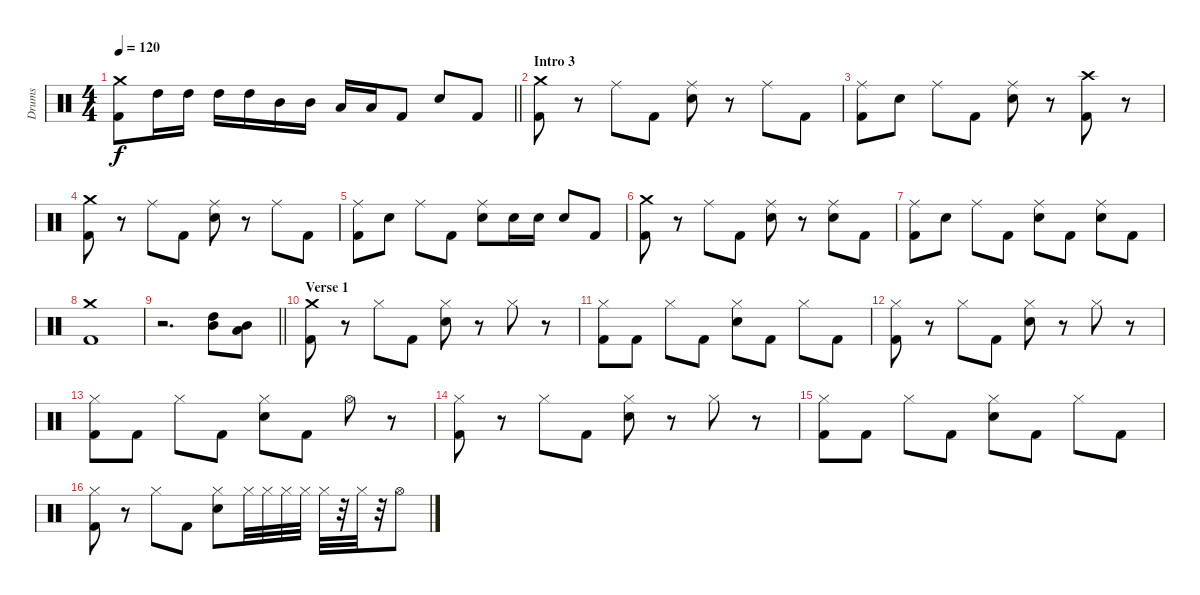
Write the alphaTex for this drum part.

\track ("Drums" "Drums") {instrument percussion}
\staff {score}
\articulation defaults
\ts (4 4)
\tempo 120
\clef neutral
\barLineRight lightlight
\ks c
("Crash medium (hit)" "Kick (hit) 2").8{dy f} "High Tom (hit)".16 "High Tom (hit)".16 "High Tom (hit)".16 "High Tom (hit)".16 "Mid Tom (hit)".16 "Mid Tom (hit)".16 "Low Tom (hit)".16 "Low Tom (hit)".16 "Kick (hit) 2".8 "Electric Snare (hit)".8 "Kick (hit) 2".8 |
\section ("" "Intro 3")
("Crash medium (hit)" "Kick (hit) 2").8 r.8 "Ride (middle)".8 "Kick (hit) 2".8 ("Ride (middle)" "Electric Snare (hit)").8 r.8 "Ride (middle)".8 "Kick (hit) 2".8 |
("Ride (middle)" "Kick (hit) 2").8 "Electric Snare (hit)".8 "Ride (middle)".8 "Kick (hit) 2".8 ("Ride (middle)" "Electric Snare (hit)").8 r.8 ("Crash high (hit)" "Kick (hit) 2").8 r.8 |
("Crash medium (hit)" "Kick (hit) 2").8 r.8 "Ride (middle)".8 "Kick (hit) 2".8 ("Ride (middle)" "Electric Snare (hit)").8 r.8 "Ride (middle)".8 "Kick (hit) 2".8 |
("Ride (middle)" "Kick (hit) 2").8 "Electric Snare (hit)".8 "Ride (middle)".8 "Kick (hit) 2".8 ("Ride (middle)" "Electric Snare (hit)").8 "Electric Snare (hit)".16 "Electric Snare (hit)".16 "Electric Snare (hit)".8 "Kick (hit) 2".8 |
("Crash medium (hit)" "Kick (hit) 2").8 r.8 "Ride (middle)".8 "Kick (hit) 2".8 ("Ride (middle)" "Electric Snare (hit)").8 r.8 ("Ride (middle)" "Electric Snare (hit)").8 "Kick (hit) 2".8 |
("Ride (middle)" "Kick (hit) 2").8 "Electric Snare (hit)".8 "Ride (middle)".8 "Kick (hit) 2".8 ("Ride (middle)" "Electric Snare (hit)").8 "Kick (hit) 2".8 ("Ride (middle)" "Electric Snare (hit)").8 "Kick (hit) 2".8 |
("Crash medium (hit)" "Kick (hit) 2").1 |
\barLineRight lightlight
r.2{d} ("High Tom (hit)" "Mid Tom (hit)").8 ("Mid Tom (hit)" "Low Tom (hit)").8 |
\section ("" "Verse 1")
("Crash medium (hit)" "Kick (hit) 2").8 r.8 "Hi-Hat (closed)".8 "Kick (hit) 2".8 ("Hi-Hat (closed)" "Electric Snare (hit)").8 r.8 "Hi-Hat (closed)".8 r.8 |
("Hi-Hat (closed)" "Kick (hit) 2").8 "Kick (hit) 2".8 "Hi-Hat (closed)".8 "Kick (hit) 2".8 ("Hi-Hat (closed)" "Electric Snare (hit)").8 "Kick (hit) 2".8 "Hi-Hat (closed)".8 "Kick (hit) 2".8 |
("Hi-Hat (closed)" "Kick (hit) 2").8 r.8 "Hi-Hat (closed)".8 "Kick (hit) 2".8 ("Hi-Hat (closed)" "Electric Snare (hit)").8 r.8 "Hi-Hat (closed)".8 r.8 |
("Hi-Hat (closed)" "Kick (hit) 2").8 "Kick (hit) 2".8 "Hi-Hat (closed)".8 "Kick (hit) 2".8 ("Hi-Hat (closed)" "Electric Snare (hit)").8 "Kick (hit) 2".8 "Hi-Hat (open)".8 r.8 |
("Hi-Hat (closed)" "Kick (hit) 2").8 r.8 "Hi-Hat (closed)".8 "Kick (hit) 2".8 ("Hi-Hat (closed)" "Electric Snare (hit)").8 r.8 "Hi-Hat (closed)".8 r.8 |
("Hi-Hat (closed)" "Kick (hit) 2").8 "Kick (hit) 2".8 "Hi-Hat (closed)".8 "Kick (hit) 2".8 ("Hi-Hat (closed)" "Electric Snare (hit)").8 "Kick (hit) 2".8 "Hi-Hat (closed)".8 "Kick (hit) 2".8 |
("Hi-Hat (closed)" "Kick (hit) 2").8 r.8 "Hi-Hat (closed)".8 "Kick (hit) 2".8 ("Hi-Hat (closed)" "Electric Snare (hit)").8 "Hi-Hat (closed)".32 "Hi-Hat (closed)".32 "Hi-Hat (closed)".32 "Hi-Hat (closed)".32 "Hi-Hat (closed)".32 r.32 "Hi-Hat (closed)".32 r.32 "Hi-Hat (open)".8
